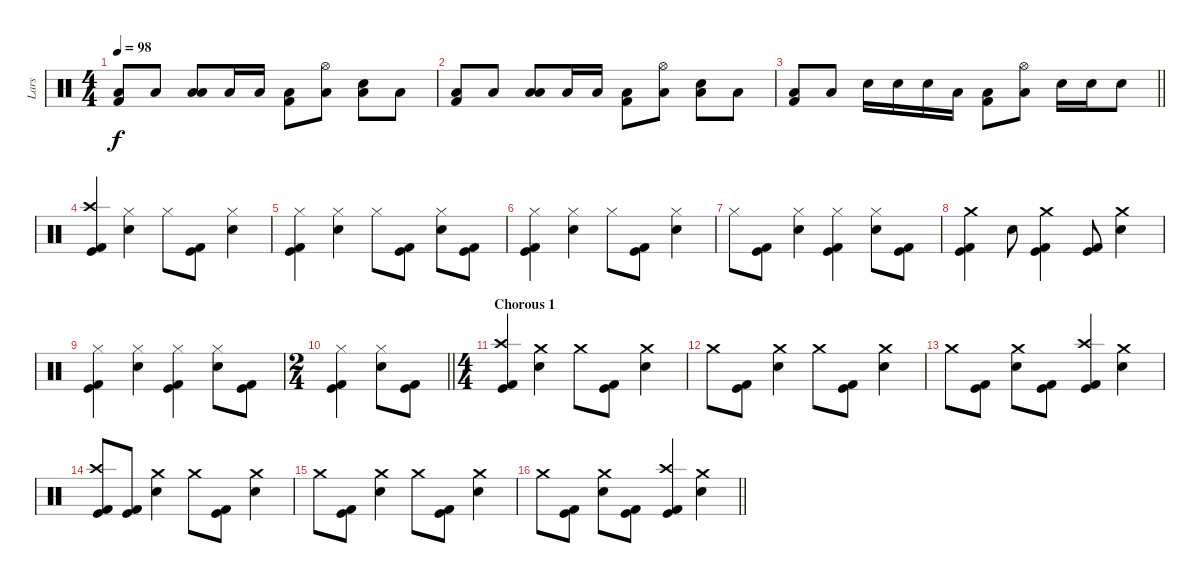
\track ("Lars" "Lars") {instrument percussion}
\staff {score}
\articulation defaults
\ts (4 4)
\tempo 98
\clef neutral
\ks c
("Low Floor Tom (hit)" "Kick (hit) 2").8{dy f} "Low Floor Tom (hit)".8 ("Low Tom (hit)" "Low Floor Tom (hit)").8 "Low Tom (hit)".16 "Low Floor Tom (hit)".16 ("Low Floor Tom (hit)" "Kick (hit) 2").8 ("Hi-Hat (open)" "Low Floor Tom (hit)").8 ("Electric Snare (hit)" "Low Floor Tom (hit)").8 "Low Floor Tom (hit)".8 |
("Low Floor Tom (hit)" "Kick (hit) 2").8 "Low Floor Tom (hit)".8 ("Low Tom (hit)" "Low Floor Tom (hit)").8 "Low Tom (hit)".16 "Low Floor Tom (hit)".16 ("Low Floor Tom (hit)" "Kick (hit) 2").8 ("Hi-Hat (open)" "Low Floor Tom (hit)").8 ("Electric Snare (hit)" "Low Floor Tom (hit)").8 "Low Floor Tom (hit)".8 |
\barLineRight lightlight
("Low Floor Tom (hit)" "Kick (hit) 2").8 "Low Floor Tom (hit)".8 "Electric Snare (hit)".16 "Electric Snare (hit)".16 "Electric Snare (hit)".16 "Low Floor Tom (hit)".16 ("Low Floor Tom (hit)" "Kick (hit) 2").8 ("Hi-Hat (open)" "Low Floor Tom (hit)").8 "Electric Snare (hit)".16 "Electric Snare (hit)".16 "Electric Snare (hit)".8 |
\section ("" "")
("Crash high (hit)" "Kick (hit)" "Kick (hit) 2").4 ("Hi-Hat (closed)" "Electric Snare (hit)").4 "Hi-Hat (closed)".8 ("Kick (hit)" "Kick (hit) 2").8 ("Hi-Hat (closed)" "Electric Snare (hit)").4 |
("Hi-Hat (closed)" "Kick (hit)" "Kick (hit) 2").4 ("Hi-Hat (closed)" "Electric Snare (hit)").4 "Hi-Hat (closed)".8 ("Kick (hit)" "Kick (hit) 2").8 ("Hi-Hat (closed)" "Electric Snare (hit)").8 ("Kick (hit)" "Kick (hit) 2").8 |
("Hi-Hat (closed)" "Kick (hit)" "Kick (hit) 2").4 ("Hi-Hat (closed)" "Electric Snare (hit)").4 "Hi-Hat (closed)".8 ("Kick (hit)" "Kick (hit) 2").8 ("Hi-Hat (closed)" "Electric Snare (hit)").4 |
"Hi-Hat (closed)".8 ("Kick (hit)" "Kick (hit) 2").8 ("Hi-Hat (closed)" "Electric Snare (hit)").4 ("Hi-Hat (closed)" "Kick (hit)" "Kick (hit) 2").4 ("Hi-Hat (closed)" "Electric Snare (hit)").8 ("Kick (hit)" "Kick (hit) 2").8 |
("Crash medium (hit)" "Kick (hit)" "Kick (hit) 2").4 "Electric Snare (hit)".8 ("Crash medium (hit)" "Kick (hit)" "Kick (hit) 2").4 ("Kick (hit)" "Kick (hit) 2").8 ("Crash medium (hit)" "Electric Snare (hit)").4 |
("Hi-Hat (closed)" "Kick (hit)" "Kick (hit) 2").4 ("Hi-Hat (closed)" "Electric Snare (hit)").4 ("Hi-Hat (closed)" "Kick (hit)" "Kick (hit) 2").4 ("Hi-Hat (closed)" "Electric Snare (hit)").8 ("Kick (hit)" "Kick (hit) 2").8 |
\ts (2 4)
\barLineRight lightlight
("Hi-Hat (closed)" "Kick (hit)" "Kick (hit) 2").4 ("Hi-Hat (closed)" "Electric Snare (hit)").8 ("Kick (hit)" "Kick (hit) 2").8 |
\ts (4 4)
\section ("" "Chorous 1")
("Crash high (hit)" "Kick (hit)" "Kick (hit) 2").4 ("Crash medium (hit)" "Electric Snare (hit)").4 "Crash medium (hit)".8 ("Kick (hit)" "Kick (hit) 2").8 ("Crash medium (hit)" "Electric Snare (hit)").4 |
"Crash medium (hit)".8 ("Kick (hit)" "Kick (hit) 2").8 ("Crash medium (hit)" "Electric Snare (hit)").4 "Crash medium (hit)".8 ("Kick (hit)" "Kick (hit) 2").8 ("Crash medium (hit)" "Electric Snare (hit)").4 |
"Crash medium (hit)".8 ("Kick (hit)" "Kick (hit) 2").8 ("Crash medium (hit)" "Electric Snare (hit)").8 ("Kick (hit)" "Kick (hit) 2").8 ("Crash high (hit)" "Kick (hit)" "Kick (hit) 2").4 ("Crash medium (hit)" "Electric Snare (hit)").4 |
("Crash high (hit)" "Kick (hit)" "Kick (hit) 2").8 ("Kick (hit)" "Kick (hit) 2").8 ("Crash medium (hit)" "Electric Snare (hit)").4 "Crash medium (hit)".8 ("Kick (hit)" "Kick (hit) 2").8 ("Crash medium (hit)" "Electric Snare (hit)").4 |
"Crash medium (hit)".8 ("Kick (hit)" "Kick (hit) 2").8 ("Crash medium (hit)" "Electric Snare (hit)").4 "Crash medium (hit)".8 ("Kick (hit)" "Kick (hit) 2").8 ("Crash medium (hit)" "Electric Snare (hit)").4 |
\barLineRight lightlight "Crash medium (hit)".8
("Kick (hit)" "Kick (hit) 2").8 ("Crash medium (hit)" "Electric Snare (hit)").8 ("Kick (hit)" "Kick (hit) 2").8 ("Crash high (hit)" "Kick (hit)" "Kick (hit) 2").4 ("Crash medium (hit)" "Electric Snare (hit)").4
